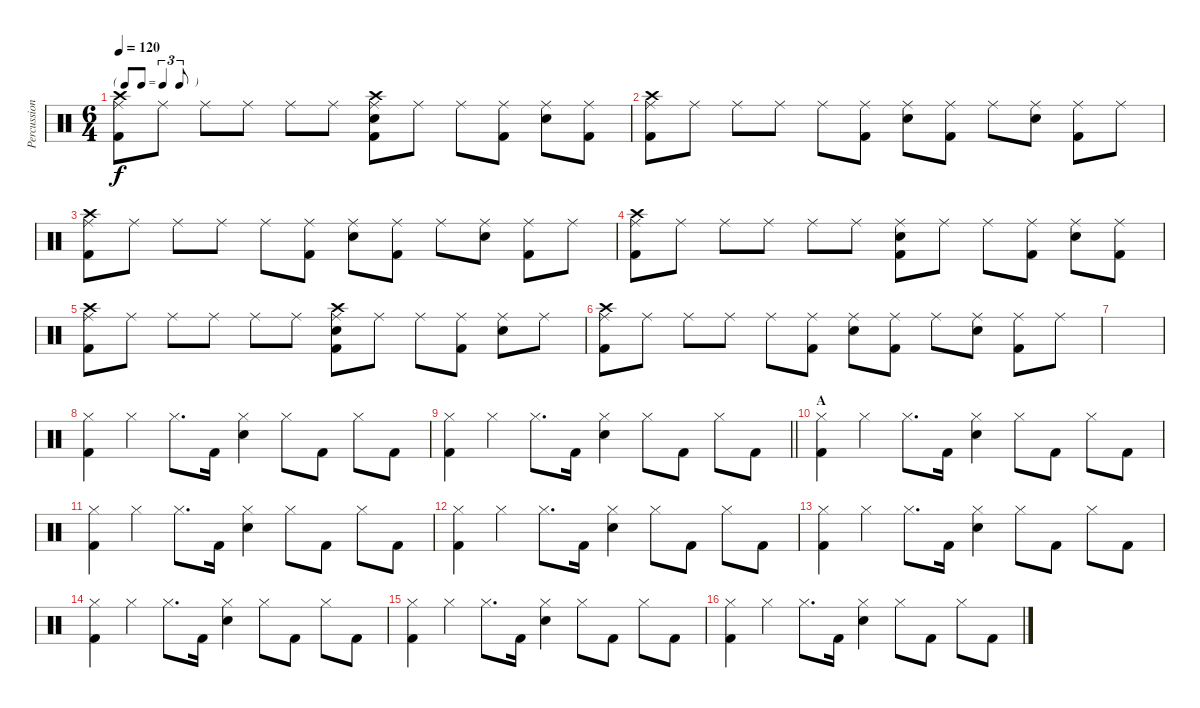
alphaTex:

\track ("Percussion" "Percussion") {instrument percussion}
\staff {score}
\articulation defaults
\ts (6 4)
\tf triplet8th
\tempo 120
\clef neutral
\ks c
("Ride (middle)" "Crash high (hit)" "Kick (hit) 2").8{dy f} "Ride (middle)".8 "Ride (middle)".8 "Ride (middle)".8 "Ride (middle)".8 "Ride (middle)".8 ("Ride (middle)" "Crash high (hit)" "Snare (hit) 2" "Kick (hit) 2").8 "Ride (middle)".8 "Ride (middle)".8 ("Ride (middle)" "Kick (hit) 2").8 ("Ride (middle)" "Snare (hit) 2").8 ("Ride (middle)" "Kick (hit) 2").8 |
("Ride (middle)" "Crash high (hit)" "Kick (hit) 2").8 "Ride (middle)".8 "Ride (middle)".8 "Ride (middle)".8 "Ride (middle)".8 ("Ride (middle)" "Kick (hit) 2").8 ("Ride (middle)" "Snare (hit) 2").8 ("Ride (middle)" "Kick (hit) 2").8 "Ride (middle)".8 ("Ride (middle)" "Snare (hit) 2").8 ("Ride (middle)" "Kick (hit) 2").8 "Ride (middle)".8 |
("Ride (middle)" "Crash high (hit)" "Kick (hit) 2").8 "Ride (middle)".8 "Ride (middle)".8 "Ride (middle)".8 "Ride (middle)".8 ("Ride (middle)" "Kick (hit) 2").8 ("Ride (middle)" "Snare (hit) 2").8 ("Ride (middle)" "Kick (hit) 2").8 "Ride (middle)".8 ("Ride (middle)" "Snare (hit) 2").8 ("Ride (middle)" "Kick (hit) 2").8 "Ride (middle)".8 |
("Ride (middle)" "Crash high (hit)" "Kick (hit) 2").8 "Ride (middle)".8 "Ride (middle)".8 "Ride (middle)".8 "Ride (middle)".8 "Ride (middle)".8 ("Ride (middle)" "Snare (hit) 2" "Kick (hit) 2").8 "Ride (middle)".8 "Ride (middle)".8 ("Ride (middle)" "Kick (hit) 2").8 ("Ride (middle)" "Snare (hit) 2").8 ("Ride (middle)" "Kick (hit) 2").8 |
("Ride (middle)" "Crash high (hit)" "Kick (hit) 2").8 "Ride (middle)".8 "Ride (middle)".8 "Ride (middle)".8 "Ride (middle)".8 "Ride (middle)".8 ("Ride (middle)" "Crash high (hit)" "Snare (hit) 2" "Kick (hit) 2").8 "Ride (middle)".8 "Ride (middle)".8 ("Ride (middle)" "Kick (hit) 2").8 ("Ride (middle)" "Snare (hit) 2").8 "Ride (middle)".8 |
("Ride (middle)" "Crash high (hit)" "Kick (hit) 2").8 "Ride (middle)".8 "Ride (middle)".8 "Ride (middle)".8 "Ride (middle)".8 ("Ride (middle)" "Kick (hit) 2").8 ("Ride (middle)" "Snare (hit) 2").8 ("Ride (middle)" "Kick (hit) 2").8 "Ride (middle)".8 ("Ride (middle)" "Snare (hit) 2").8 ("Ride (middle)" "Kick (hit) 2").8 "Ride (middle)".8 |
|
("Hi-Hat (closed)" "Kick (hit) 2").4 "Hi-Hat (closed)".4 "Hi-Hat (closed)".8{d} "Kick (hit) 2".16 ("Hi-Hat (closed)" "Snare (hit) 2").4 "Hi-Hat (closed)".8 "Kick (hit) 2".8 "Hi-Hat (closed)".8 "Kick (hit) 2".8 |
\barLineRight lightlight
("Hi-Hat (closed)" "Kick (hit) 2").4 "Hi-Hat (closed)".4 "Hi-Hat (closed)".8{d} "Kick (hit) 2".16 ("Hi-Hat (closed)" "Snare (hit) 2").4 "Hi-Hat (closed)".8 "Kick (hit) 2".8 "Hi-Hat (closed)".8 "Kick (hit) 2".8 |
\section ("" "A")
("Hi-Hat (closed)" "Kick (hit) 2").4 "Hi-Hat (closed)".4 "Hi-Hat (closed)".8{d} "Kick (hit) 2".16 ("Hi-Hat (closed)" "Snare (hit) 2").4 "Hi-Hat (closed)".8 "Kick (hit) 2".8 "Hi-Hat (closed)".8 "Kick (hit) 2".8 |
("Hi-Hat (closed)" "Kick (hit) 2").4 "Hi-Hat (closed)".4 "Hi-Hat (closed)".8{d} "Kick (hit) 2".16 ("Hi-Hat (closed)" "Snare (hit) 2").4 "Hi-Hat (closed)".8 "Kick (hit) 2".8 "Hi-Hat (closed)".8 "Kick (hit) 2".8 |
("Hi-Hat (closed)" "Kick (hit) 2").4 "Hi-Hat (closed)".4 "Hi-Hat (closed)".8{d} "Kick (hit) 2".16 ("Hi-Hat (closed)" "Snare (hit) 2").4 "Hi-Hat (closed)".8 "Kick (hit) 2".8 "Hi-Hat (closed)".8 "Kick (hit) 2".8 |
("Hi-Hat (closed)" "Kick (hit) 2").4 "Hi-Hat (closed)".4 "Hi-Hat (closed)".8{d} "Kick (hit) 2".16 ("Hi-Hat (closed)" "Snare (hit) 2").4 "Hi-Hat (closed)".8 "Kick (hit) 2".8 "Hi-Hat (closed)".8 "Kick (hit) 2".8 |
("Hi-Hat (closed)" "Kick (hit) 2").4 "Hi-Hat (closed)".4 "Hi-Hat (closed)".8{d} "Kick (hit) 2".16 ("Hi-Hat (closed)" "Snare (hit) 2").4 "Hi-Hat (closed)".8 "Kick (hit) 2".8 "Hi-Hat (closed)".8 "Kick (hit) 2".8 |
("Hi-Hat (closed)" "Kick (hit) 2").4 "Hi-Hat (closed)".4 "Hi-Hat (closed)".8{d} "Kick (hit) 2".16 ("Hi-Hat (closed)" "Snare (hit) 2").4 "Hi-Hat (closed)".8 "Kick (hit) 2".8 "Hi-Hat (closed)".8 "Kick (hit) 2".8 |
("Hi-Hat (closed)" "Kick (hit) 2").4 "Hi-Hat (closed)".4 "Hi-Hat (closed)".8{d} "Kick (hit) 2".16 ("Hi-Hat (closed)" "Snare (hit) 2").4 "Hi-Hat (closed)".8 "Kick (hit) 2".8 "Hi-Hat (closed)".8 "Kick (hit) 2".8
